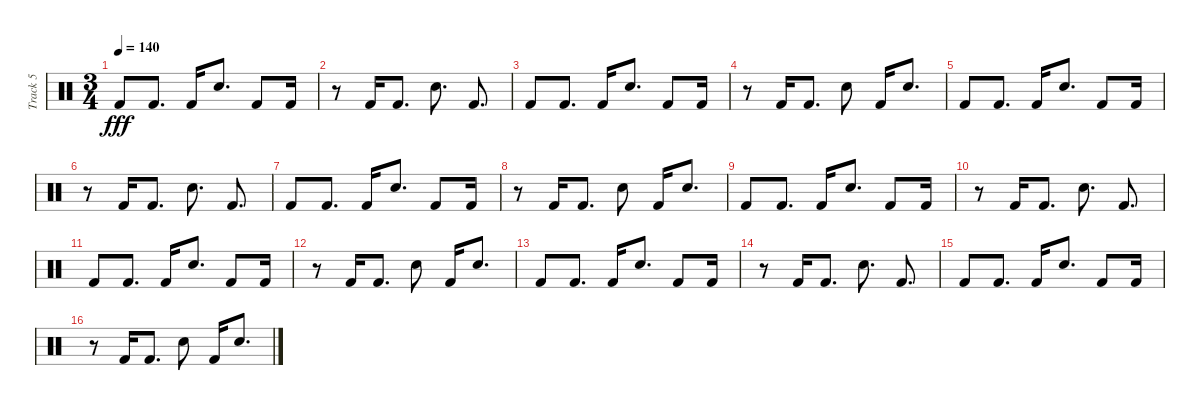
\track ("Track 5" "Track 5") {instrument percussion}
\staff {score}
\articulation defaults
\ts (3 4)
\tempo 140
\clef neutral
\ks c "Kick (hit) 2".8{dy fff} "Kick (hit) 2".8{d} "Kick (hit) 2".16 "Electric Snare (hit)".8{d} "Kick (hit) 2".8 "Kick (hit) 2".16
|
r.8 "Kick (hit) 2".16 "Kick (hit) 2".8{d} "Electric Snare (hit)".8{d} "Kick (hit) 2".8{d} |
"Kick (hit) 2".8 "Kick (hit) 2".8{d} "Kick (hit) 2".16 "Electric Snare (hit)".8{d} "Kick (hit) 2".8 "Kick (hit) 2".16 |
r.8 "Kick (hit) 2".16 "Kick (hit) 2".8{d} "Electric Snare (hit)".8 "Kick (hit) 2".16 "Electric Snare (hit)".8{d} |
"Kick (hit) 2".8 "Kick (hit) 2".8{d} "Kick (hit) 2".16 "Electric Snare (hit)".8{d} "Kick (hit) 2".8 "Kick (hit) 2".16 |
r.8 "Kick (hit) 2".16 "Kick (hit) 2".8{d} "Electric Snare (hit)".8{d} "Kick (hit) 2".8{d} |
"Kick (hit) 2".8 "Kick (hit) 2".8{d} "Kick (hit) 2".16 "Electric Snare (hit)".8{d} "Kick (hit) 2".8 "Kick (hit) 2".16 |
r.8 "Kick (hit) 2".16 "Kick (hit) 2".8{d} "Electric Snare (hit)".8 "Kick (hit) 2".16 "Electric Snare (hit)".8{d} |
"Kick (hit) 2".8 "Kick (hit) 2".8{d} "Kick (hit) 2".16 "Electric Snare (hit)".8{d} "Kick (hit) 2".8 "Kick (hit) 2".16 |
r.8 "Kick (hit) 2".16 "Kick (hit) 2".8{d} "Electric Snare (hit)".8{d} "Kick (hit) 2".8{d} |
"Kick (hit) 2".8 "Kick (hit) 2".8{d} "Kick (hit) 2".16 "Electric Snare (hit)".8{d} "Kick (hit) 2".8 "Kick (hit) 2".16 |
r.8 "Kick (hit) 2".16 "Kick (hit) 2".8{d} "Electric Snare (hit)".8 "Kick (hit) 2".16 "Electric Snare (hit)".8{d} |
"Kick (hit) 2".8 "Kick (hit) 2".8{d} "Kick (hit) 2".16 "Electric Snare (hit)".8{d} "Kick (hit) 2".8 "Kick (hit) 2".16 |
r.8 "Kick (hit) 2".16 "Kick (hit) 2".8{d} "Electric Snare (hit)".8{d} "Kick (hit) 2".8{d} |
"Kick (hit) 2".8 "Kick (hit) 2".8{d} "Kick (hit) 2".16 "Electric Snare (hit)".8{d} "Kick (hit) 2".8 "Kick (hit) 2".16 |
r.8 "Kick (hit) 2".16 "Kick (hit) 2".8{d} "Electric Snare (hit)".8 "Kick (hit) 2".16 "Electric Snare (hit)".8{d}
